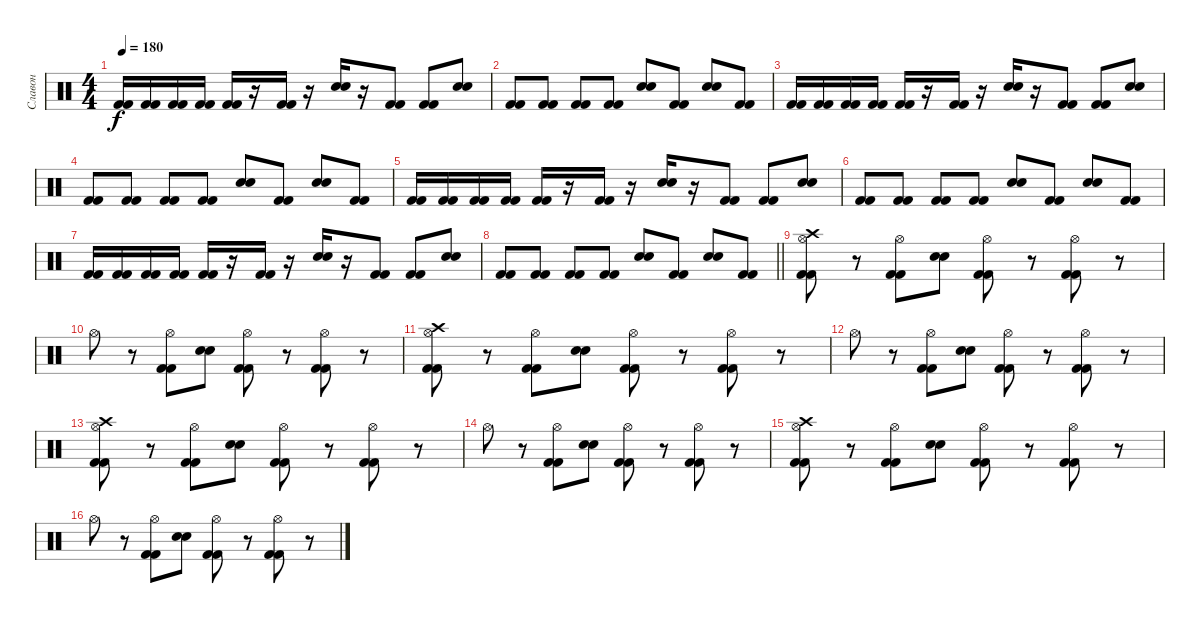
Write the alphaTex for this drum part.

\track ("Славон" "Славон") {instrument percussion}
\staff {score}
\articulation defaults
\ts (4 4)
\tempo 180
\clef neutral
\ks c
("Kick (hit) 2" "Kick (hit) 2").16{dy f} ("Kick (hit) 2" "Kick (hit) 2").16 ("Kick (hit) 2" "Kick (hit) 2").16 ("Kick (hit) 2" "Kick (hit) 2").16 ("Kick (hit) 2" "Kick (hit) 2").16 r.16 ("Kick (hit) 2" "Kick (hit) 2").16 r.16 ("Electric Snare (hit)" "Electric Snare (hit)").16 r.16 ("Kick (hit) 2" "Kick (hit) 2").8 ("Kick (hit) 2" "Kick (hit) 2").8 ("Electric Snare (hit)" "Electric Snare (hit)").8 |
("Kick (hit) 2" "Kick (hit) 2").8 ("Kick (hit) 2" "Kick (hit) 2").8 ("Kick (hit) 2" "Kick (hit) 2").8 ("Kick (hit) 2" "Kick (hit) 2").8 ("Electric Snare (hit)" "Electric Snare (hit)").8 ("Kick (hit) 2" "Kick (hit) 2").8 ("Electric Snare (hit)" "Electric Snare (hit)").8 ("Kick (hit) 2" "Kick (hit) 2").8 |
("Kick (hit) 2" "Kick (hit) 2").16 ("Kick (hit) 2" "Kick (hit) 2").16 ("Kick (hit) 2" "Kick (hit) 2").16 ("Kick (hit) 2" "Kick (hit) 2").16 ("Kick (hit) 2" "Kick (hit) 2").16 r.16 ("Kick (hit) 2" "Kick (hit) 2").16 r.16 ("Electric Snare (hit)" "Electric Snare (hit)").16 r.16 ("Kick (hit) 2" "Kick (hit) 2").8 ("Kick (hit) 2" "Kick (hit) 2").8 ("Electric Snare (hit)" "Electric Snare (hit)").8 |
("Kick (hit) 2" "Kick (hit) 2").8 ("Kick (hit) 2" "Kick (hit) 2").8 ("Kick (hit) 2" "Kick (hit) 2").8 ("Kick (hit) 2" "Kick (hit) 2").8 ("Electric Snare (hit)" "Electric Snare (hit)").8 ("Kick (hit) 2" "Kick (hit) 2").8 ("Electric Snare (hit)" "Electric Snare (hit)").8 ("Kick (hit) 2" "Kick (hit) 2").8 |
("Kick (hit) 2" "Kick (hit) 2").16 ("Kick (hit) 2" "Kick (hit) 2").16 ("Kick (hit) 2" "Kick (hit) 2").16 ("Kick (hit) 2" "Kick (hit) 2").16 ("Kick (hit) 2" "Kick (hit) 2").16 r.16 ("Kick (hit) 2" "Kick (hit) 2").16 r.16 ("Electric Snare (hit)" "Electric Snare (hit)").16 r.16 ("Kick (hit) 2" "Kick (hit) 2").8 ("Kick (hit) 2" "Kick (hit) 2").8 ("Electric Snare (hit)" "Electric Snare (hit)").8 |
("Kick (hit) 2" "Kick (hit) 2").8 ("Kick (hit) 2" "Kick (hit) 2").8 ("Kick (hit) 2" "Kick (hit) 2").8 ("Kick (hit) 2" "Kick (hit) 2").8 ("Electric Snare (hit)" "Electric Snare (hit)").8 ("Kick (hit) 2" "Kick (hit) 2").8 ("Electric Snare (hit)" "Electric Snare (hit)").8 ("Kick (hit) 2" "Kick (hit) 2").8 |
("Kick (hit) 2" "Kick (hit) 2").16 ("Kick (hit) 2" "Kick (hit) 2").16 ("Kick (hit) 2" "Kick (hit) 2").16 ("Kick (hit) 2" "Kick (hit) 2").16 ("Kick (hit) 2" "Kick (hit) 2").16 r.16 ("Kick (hit) 2" "Kick (hit) 2").16 r.16 ("Electric Snare (hit)" "Electric Snare (hit)").16 r.16 ("Kick (hit) 2" "Kick (hit) 2").8 ("Kick (hit) 2" "Kick (hit) 2").8 ("Electric Snare (hit)" "Electric Snare (hit)").8 |
\barLineRight lightlight
("Kick (hit) 2" "Kick (hit) 2").8 ("Kick (hit) 2" "Kick (hit) 2").8 ("Kick (hit) 2" "Kick (hit) 2").8 ("Kick (hit) 2" "Kick (hit) 2").8 ("Electric Snare (hit)" "Electric Snare (hit)").8 ("Kick (hit) 2" "Kick (hit) 2").8 ("Electric Snare (hit)" "Electric Snare (hit)").8 ("Kick (hit) 2" "Kick (hit) 2").8 |
\section ("" "")
("Hi-Hat (open)" "Kick (hit) 2" "Kick (hit) 2" "Crash high (hit)").8 r.8 ("Hi-Hat (open)" "Kick (hit) 2" "Kick (hit) 2").8 ("Electric Snare (hit)" "Electric Snare (hit)").8 ("Hi-Hat (open)" "Kick (hit) 2" "Kick (hit) 2").8 r.8 ("Hi-Hat (open)" "Kick (hit) 2" "Kick (hit) 2").8 r.8 |
"Hi-Hat (open)".8 r.8 ("Hi-Hat (open)" "Kick (hit) 2" "Kick (hit) 2").8 ("Electric Snare (hit)" "Electric Snare (hit)").8 ("Hi-Hat (open)" "Kick (hit) 2" "Kick (hit) 2").8 r.8 ("Hi-Hat (open)" "Kick (hit) 2" "Kick (hit) 2").8 r.8 |
("Hi-Hat (open)" "Kick (hit) 2" "Kick (hit) 2" "Crash high (hit)").8 r.8 ("Hi-Hat (open)" "Kick (hit) 2" "Kick (hit) 2").8 ("Electric Snare (hit)" "Electric Snare (hit)").8 ("Hi-Hat (open)" "Kick (hit) 2" "Kick (hit) 2").8 r.8 ("Hi-Hat (open)" "Kick (hit) 2" "Kick (hit) 2").8 r.8 |
"Hi-Hat (open)".8 r.8 ("Hi-Hat (open)" "Kick (hit) 2" "Kick (hit) 2").8 ("Electric Snare (hit)" "Electric Snare (hit)").8 ("Hi-Hat (open)" "Kick (hit) 2" "Kick (hit) 2").8 r.8 ("Hi-Hat (open)" "Kick (hit) 2" "Kick (hit) 2").8 r.8 |
("Hi-Hat (open)" "Kick (hit) 2" "Kick (hit) 2" "Crash high (hit)").8 r.8 ("Hi-Hat (open)" "Kick (hit) 2" "Kick (hit) 2").8 ("Electric Snare (hit)" "Electric Snare (hit)").8 ("Hi-Hat (open)" "Kick (hit) 2" "Kick (hit) 2").8 r.8 ("Hi-Hat (open)" "Kick (hit) 2" "Kick (hit) 2").8 r.8 |
"Hi-Hat (open)".8 r.8 ("Hi-Hat (open)" "Kick (hit) 2" "Kick (hit) 2").8 ("Electric Snare (hit)" "Electric Snare (hit)").8 ("Hi-Hat (open)" "Kick (hit) 2" "Kick (hit) 2").8 r.8 ("Hi-Hat (open)" "Kick (hit) 2" "Kick (hit) 2").8 r.8 |
("Hi-Hat (open)" "Kick (hit) 2" "Kick (hit) 2" "Crash high (hit)").8 r.8 ("Hi-Hat (open)" "Kick (hit) 2" "Kick (hit) 2").8 ("Electric Snare (hit)" "Electric Snare (hit)").8 ("Hi-Hat (open)" "Kick (hit) 2" "Kick (hit) 2").8 r.8 ("Hi-Hat (open)" "Kick (hit) 2" "Kick (hit) 2").8 r.8 |
"Hi-Hat (open)".8 r.8 ("Hi-Hat (open)" "Kick (hit) 2" "Kick (hit) 2").8 ("Electric Snare (hit)" "Electric Snare (hit)").8 ("Hi-Hat (open)" "Kick (hit) 2" "Kick (hit) 2").8 r.8 ("Hi-Hat (open)" "Kick (hit) 2" "Kick (hit) 2").8 r.8
